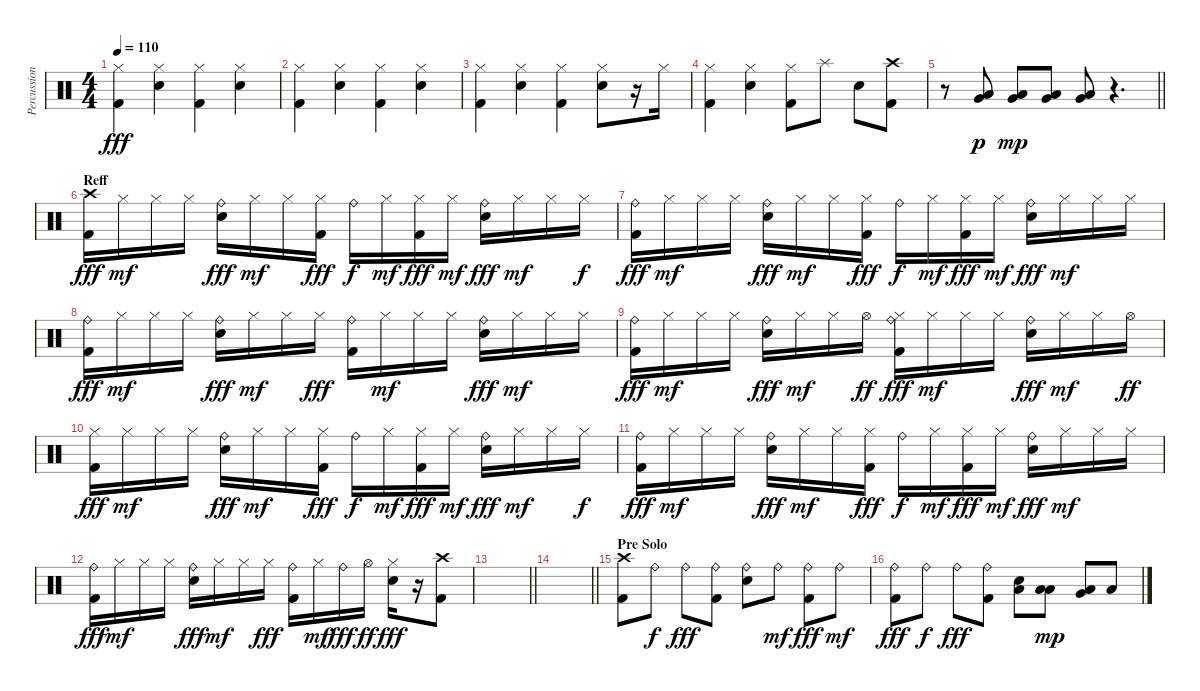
\track ("Percussion" "Percussion") {instrument percussion}
\staff {score}
\articulation defaults
\ts (4 4)
\tempo 110
\clef neutral
\ks c
("Hi-Hat (closed)" "Kick (hit) 2").4{dy fff} ("Hi-Hat (closed)" "Electric Snare (hit)").4 ("Hi-Hat (closed)" "Kick (hit) 2").4 ("Hi-Hat (closed)" "Electric Snare (hit)").4 |
("Hi-Hat (closed)" "Kick (hit) 2").4 ("Hi-Hat (closed)" "Electric Snare (hit)").4 ("Hi-Hat (closed)" "Kick (hit) 2").4 ("Hi-Hat (closed)" "Electric Snare (hit)").4 |
("Hi-Hat (closed)" "Kick (hit) 2").4 ("Hi-Hat (closed)" "Electric Snare (hit)").4 ("Hi-Hat (closed)" "Kick (hit) 2").4 ("Hi-Hat (closed)" "Electric Snare (hit)").8 r.16 "Hi-Hat (closed)".16 |
("Hi-Hat (closed)" "Kick (hit) 2").4 ("Hi-Hat (closed)" "Electric Snare (hit)").4 ("Hi-Hat (closed)" "Kick (hit) 2").8 "Splash (hit)".8 "Electric Snare (hit)".8 ("Crash high (hit)" "Kick (hit) 2").8 |
\barLineRight lightlight
r.8 ("Very Low Tom (hit)" "Low Floor Tom (hit)").8{dy p} ("Very Low Tom (hit)" "Low Floor Tom (hit)").8{dy mp} ("Very Low Tom (hit)" "Low Floor Tom (hit)").8 ("Very Low Tom (hit)" "Low Floor Tom (hit)").8 r.4{d} |
\section ("" "Reff")
("Crash high (hit)" "Kick (hit) 2").16{dy fff} "Hi-Hat (closed)".16{dy mf} "Hi-Hat (closed)".16 "Hi-Hat (closed)".16 ("Ride (bell)" "Electric Snare (hit)").16{dy fff} "Hi-Hat (closed)".16{dy mf} "Hi-Hat (closed)".16 ("Hi-Hat (closed)" "Kick (hit) 2").16{dy fff} "Ride (bell)".16{dy f} "Hi-Hat (closed)".16{dy mf} ("Hi-Hat (closed)" "Kick (hit) 2").16{dy fff} "Hi-Hat (closed)".16{dy mf} ("Ride (bell)" "Electric Snare (hit)").16{dy fff} "Hi-Hat (closed)".16{dy mf} "Hi-Hat (closed)".16 "Hi-Hat (closed)".16{dy f} |
("Ride (bell)" "Kick (hit) 2").16{dy fff} "Hi-Hat (closed)".16{dy mf} "Hi-Hat (closed)".16 "Hi-Hat (closed)".16 ("Ride (bell)" "Electric Snare (hit)").16{dy fff} "Hi-Hat (closed)".16{dy mf} "Hi-Hat (closed)".16 ("Hi-Hat (closed)" "Kick (hit) 2").16{dy fff} "Ride (bell)".16{dy f} "Hi-Hat (closed)".16{dy mf} ("Hi-Hat (closed)" "Kick (hit) 2").16{dy fff} "Hi-Hat (closed)".16{dy mf} ("Ride (bell)" "Electric Snare (hit)").16{dy fff} "Hi-Hat (closed)".16{dy mf} "Hi-Hat (closed)".16 "Hi-Hat (closed)".16 |
("Ride (bell)" "Kick (hit) 2").16{dy fff} "Hi-Hat (closed)".16{dy mf} "Hi-Hat (closed)".16 "Hi-Hat (closed)".16 ("Ride (bell)" "Electric Snare (hit)").16{dy fff} "Hi-Hat (closed)".16{dy mf} "Hi-Hat (closed)".16 "Hi-Hat (closed)".16{dy fff} ("Ride (bell)" "Kick (hit) 2").16 "Hi-Hat (closed)".16{dy mf} "Hi-Hat (closed)".16 "Hi-Hat (closed)".16 ("Ride (bell)" "Electric Snare (hit)").16{dy fff} "Hi-Hat (closed)".16{dy mf} "Hi-Hat (closed)".16 "Hi-Hat (closed)".16 |
("Ride (bell)" "Kick (hit) 2").16{dy fff} "Hi-Hat (closed)".16{dy mf} "Hi-Hat (closed)".16 "Hi-Hat (closed)".16 ("Ride (bell)" "Electric Snare (hit)").16{dy fff} "Hi-Hat (closed)".16{dy mf} "Hi-Hat (closed)".16 "Hi-Hat (open)".16{dy ff} ("Hi-Hat (closed)" "Ride (bell)" "Kick (hit) 2").16{dy fff} "Hi-Hat (closed)".16{dy mf} "Hi-Hat (closed)".16 "Hi-Hat (closed)".16 ("Ride (bell)" "Electric Snare (hit)").16{dy fff} "Hi-Hat (closed)".16{dy mf} "Hi-Hat (closed)".16 "Hi-Hat (open)".16{dy ff} |
("Hi-Hat (closed)" "Kick (hit) 2").16{dy fff} "Hi-Hat (closed)".16{dy mf} "Hi-Hat (closed)".16 "Hi-Hat (closed)".16 ("Ride (bell)" "Electric Snare (hit)").16{dy fff} "Hi-Hat (closed)".16{dy mf} "Hi-Hat (closed)".16 ("Hi-Hat (closed)" "Kick (hit) 2").16{dy fff} "Ride (bell)".16{dy f} "Hi-Hat (closed)".16{dy mf} ("Hi-Hat (closed)" "Kick (hit) 2").16{dy fff} "Hi-Hat (closed)".16{dy mf} ("Ride (bell)" "Electric Snare (hit)").16{dy fff} "Hi-Hat (closed)".16{dy mf} "Hi-Hat (closed)".16 "Hi-Hat (closed)".16{dy f} |
("Ride (bell)" "Kick (hit) 2").16{dy fff} "Hi-Hat (closed)".16{dy mf} "Hi-Hat (closed)".16 "Hi-Hat (closed)".16 ("Ride (bell)" "Electric Snare (hit)").16{dy fff} "Hi-Hat (closed)".16{dy mf} "Hi-Hat (closed)".16 ("Hi-Hat (closed)" "Kick (hit) 2").16{dy fff} "Ride (bell)".16{dy f} "Hi-Hat (closed)".16{dy mf} ("Hi-Hat (closed)" "Kick (hit) 2").16{dy fff} "Hi-Hat (closed)".16{dy mf} ("Ride (bell)" "Electric Snare (hit)").16{dy fff} "Hi-Hat (closed)".16{dy mf} "Hi-Hat (closed)".16 "Hi-Hat (closed)".16 |
("Ride (bell)" "Kick (hit) 2").16{dy fff} "Hi-Hat (closed)".16{dy mf} "Hi-Hat (closed)".16 "Hi-Hat (closed)".16 ("Ride (bell)" "Electric Snare (hit)").16{dy fff} "Hi-Hat (closed)".16{dy mf} "Hi-Hat (closed)".16 "Hi-Hat (closed)".16{dy fff} ("Ride (bell)" "Kick (hit) 2").16 "Hi-Hat (closed)".16{dy mf} "Ride (bell)".16{dy fff} "Hi-Hat (open)".16{dy ff} ("Hi-Hat (closed)" "Electric Snare (hit)").16{dy fff} r.16 ("Crash high (hit)" "Kick (hit) 2").8 |
\barLineRight lightlight
|
\barLineRight lightlight
|
\section ("" "Pre Solo")
("Crash high (hit)" "Kick (hit) 2").8 "Ride (bell)".8{dy f} "Ride (bell)".8{dy fff} ("Ride (bell)" "Kick (hit) 2").8 ("Ride (bell)" "Electric Snare (hit)").8 "Ride (bell)".8{dy mf} ("Ride (bell)" "Kick (hit) 2").8{dy fff} "Ride (bell)".8{dy mf} |
("Ride (bell)" "Kick (hit) 2").8{dy fff} "Ride (bell)".8{dy f} "Ride (bell)".8{dy fff} ("Ride (bell)" "Kick (hit) 2").8 ("Low Floor Tom (hit)" "Electric Snare (hit)").8 ("Low Floor Tom (hit)" "Low Tom (hit)").8{dy mp} ("Low Floor Tom (hit)" "Very Low Tom (hit)").8 "Low Floor Tom (hit)".8
